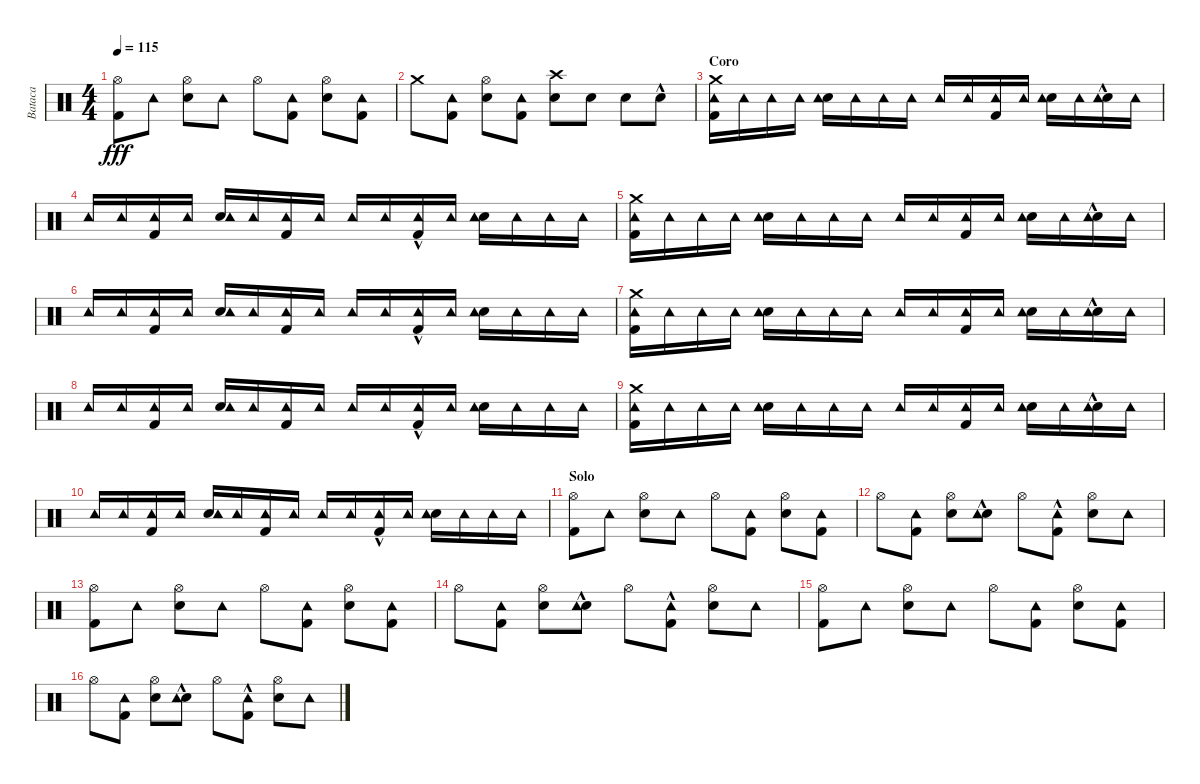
\track ("Bataca" "Bataca") {instrument percussion}
\staff {score}
\articulation defaults
\ts (4 4)
\tempo 115
\clef neutral
\ks c
("Kick (hit) 2" "Hi-Hat (open)").8{dy fff} "Tambourine (hit)".8 ("Snare (hit) 2" "Hi-Hat (open)").8 "Tambourine (hit)".8 "Hi-Hat (open)".8 ("Kick (hit) 2" "Tambourine (hit)").8 ("Snare (hit) 2" "Hi-Hat (open)").8 ("Kick (hit) 2" "Tambourine (hit)").8 |
"Crash medium (hit)".8 ("Kick (hit) 2" "Tambourine (hit)").8 ("Snare (hit) 2" "Hi-Hat (open)").8 ("Kick (hit) 2" "Tambourine (hit)").8 ("Snare (hit) 2" "Crash high (hit)").8 "Snare (hit) 2".8 "Snare (hit) 2".8 "Snare (hit) 2"{hac}.8 |
\section ("" "Coro")
("Kick (hit) 2" "Tambourine (hit)" "Crash medium (hit)").16 "Tambourine (hit)".16 "Tambourine (hit)".16 "Tambourine (hit)".16 ("Snare (hit) 2" "Tambourine (hit)").16 "Tambourine (hit)".16 "Tambourine (hit)".16 "Tambourine (hit)".16 "Tambourine (hit)".16 "Tambourine (hit)".16 ("Kick (hit) 2" "Tambourine (hit)").16 "Tambourine (hit)".16 ("Snare (hit) 2" "Tambourine (hit)").16 "Tambourine (hit)".16 ("Snare (hit) 2"{hac} "Tambourine (hit)").16 "Tambourine (hit)".16 |
"Tambourine (hit)".16 "Tambourine (hit)".16 ("Kick (hit) 2" "Tambourine (hit)").16 "Tambourine (hit)".16 ("Snare (hit) 2" "Tambourine (hit)").16 "Tambourine (hit)".16 ("Kick (hit) 2" "Tambourine (hit)").16 "Tambourine (hit)".16 "Tambourine (hit)".16 "Tambourine (hit)".16 ("Kick (hit) 2"{hac} "Tambourine (hit)").16 "Tambourine (hit)".16 ("Snare (hit) 2" "Tambourine (hit)").16 "Tambourine (hit)".16 "Tambourine (hit)".16 "Tambourine (hit)".16 |
("Kick (hit) 2" "Tambourine (hit)" "Crash medium (hit)").16 "Tambourine (hit)".16 "Tambourine (hit)".16 "Tambourine (hit)".16 ("Snare (hit) 2" "Tambourine (hit)").16 "Tambourine (hit)".16 "Tambourine (hit)".16 "Tambourine (hit)".16 "Tambourine (hit)".16 "Tambourine (hit)".16 ("Kick (hit) 2" "Tambourine (hit)").16 "Tambourine (hit)".16 ("Snare (hit) 2" "Tambourine (hit)").16 "Tambourine (hit)".16 ("Snare (hit) 2"{hac} "Tambourine (hit)").16 "Tambourine (hit)".16 |
"Tambourine (hit)".16 "Tambourine (hit)".16 ("Kick (hit) 2" "Tambourine (hit)").16 "Tambourine (hit)".16 ("Snare (hit) 2" "Tambourine (hit)").16 "Tambourine (hit)".16 ("Kick (hit) 2" "Tambourine (hit)").16 "Tambourine (hit)".16 "Tambourine (hit)".16 "Tambourine (hit)".16 ("Kick (hit) 2"{hac} "Tambourine (hit)").16 "Tambourine (hit)".16 ("Snare (hit) 2" "Tambourine (hit)").16 "Tambourine (hit)".16 "Tambourine (hit)".16 "Tambourine (hit)".16 |
("Kick (hit) 2" "Tambourine (hit)" "Crash medium (hit)").16 "Tambourine (hit)".16 "Tambourine (hit)".16 "Tambourine (hit)".16 ("Snare (hit) 2" "Tambourine (hit)").16 "Tambourine (hit)".16 "Tambourine (hit)".16 "Tambourine (hit)".16 "Tambourine (hit)".16 "Tambourine (hit)".16 ("Kick (hit) 2" "Tambourine (hit)").16 "Tambourine (hit)".16 ("Snare (hit) 2" "Tambourine (hit)").16 "Tambourine (hit)".16 ("Snare (hit) 2"{hac} "Tambourine (hit)").16 "Tambourine (hit)".16 |
"Tambourine (hit)".16 "Tambourine (hit)".16 ("Kick (hit) 2" "Tambourine (hit)").16 "Tambourine (hit)".16 ("Snare (hit) 2" "Tambourine (hit)").16 "Tambourine (hit)".16 ("Kick (hit) 2" "Tambourine (hit)").16 "Tambourine (hit)".16 "Tambourine (hit)".16 "Tambourine (hit)".16 ("Kick (hit) 2"{hac} "Tambourine (hit)").16 "Tambourine (hit)".16 ("Snare (hit) 2" "Tambourine (hit)").16 "Tambourine (hit)".16 "Tambourine (hit)".16 "Tambourine (hit)".16 |
("Kick (hit) 2" "Tambourine (hit)" "Crash medium (hit)").16 "Tambourine (hit)".16 "Tambourine (hit)".16 "Tambourine (hit)".16 ("Snare (hit) 2" "Tambourine (hit)").16 "Tambourine (hit)".16 "Tambourine (hit)".16 "Tambourine (hit)".16 "Tambourine (hit)".16 "Tambourine (hit)".16 ("Kick (hit) 2" "Tambourine (hit)").16 "Tambourine (hit)".16 ("Snare (hit) 2" "Tambourine (hit)").16 "Tambourine (hit)".16 ("Snare (hit) 2"{hac} "Tambourine (hit)").16 "Tambourine (hit)".16 |
"Tambourine (hit)".16 "Tambourine (hit)".16 ("Kick (hit) 2" "Tambourine (hit)").16 "Tambourine (hit)".16 ("Snare (hit) 2" "Tambourine (hit)").16 "Tambourine (hit)".16 ("Kick (hit) 2" "Tambourine (hit)").16 "Tambourine (hit)".16 "Tambourine (hit)".16 "Tambourine (hit)".16 ("Kick (hit) 2"{hac} "Tambourine (hit)").16 "Tambourine (hit)".16 ("Snare (hit) 2" "Tambourine (hit)").16 "Tambourine (hit)".16 "Tambourine (hit)".16 "Tambourine (hit)".16 |
\section ("" "Solo")
("Kick (hit) 2" "Hi-Hat (open)").8 "Tambourine (hit)".8 ("Snare (hit) 2" "Hi-Hat (open)").8 "Tambourine (hit)".8 "Hi-Hat (open)".8 ("Kick (hit) 2" "Tambourine (hit)").8 ("Snare (hit) 2" "Hi-Hat (open)").8 ("Kick (hit) 2" "Tambourine (hit)").8 |
"Hi-Hat (open)".8 ("Kick (hit) 2" "Tambourine (hit)").8 ("Snare (hit) 2" "Hi-Hat (open)").8 ("Snare (hit) 2"{hac} "Tambourine (hit)").8 "Hi-Hat (open)".8 ("Kick (hit) 2"{hac} "Tambourine (hit)").8 ("Snare (hit) 2" "Hi-Hat (open)").8 "Tambourine (hit)".8 |
("Kick (hit) 2" "Hi-Hat (open)").8 "Tambourine (hit)".8 ("Snare (hit) 2" "Hi-Hat (open)").8 "Tambourine (hit)".8 "Hi-Hat (open)".8 ("Kick (hit) 2" "Tambourine (hit)").8 ("Snare (hit) 2" "Hi-Hat (open)").8 ("Kick (hit) 2" "Tambourine (hit)").8 |
"Hi-Hat (open)".8 ("Kick (hit) 2" "Tambourine (hit)").8 ("Snare (hit) 2" "Hi-Hat (open)").8 ("Snare (hit) 2"{hac} "Tambourine (hit)").8 "Hi-Hat (open)".8 ("Kick (hit) 2"{hac} "Tambourine (hit)").8 ("Snare (hit) 2" "Hi-Hat (open)").8 "Tambourine (hit)".8 |
("Kick (hit) 2" "Hi-Hat (open)").8 "Tambourine (hit)".8 ("Snare (hit) 2" "Hi-Hat (open)").8 "Tambourine (hit)".8 "Hi-Hat (open)".8 ("Kick (hit) 2" "Tambourine (hit)").8 ("Snare (hit) 2" "Hi-Hat (open)").8 ("Kick (hit) 2" "Tambourine (hit)").8 |
"Hi-Hat (open)".8 ("Kick (hit) 2" "Tambourine (hit)").8 ("Snare (hit) 2" "Hi-Hat (open)").8 ("Snare (hit) 2"{hac} "Tambourine (hit)").8 "Hi-Hat (open)".8 ("Kick (hit) 2"{hac} "Tambourine (hit)").8 ("Snare (hit) 2" "Hi-Hat (open)").8 "Tambourine (hit)".8
